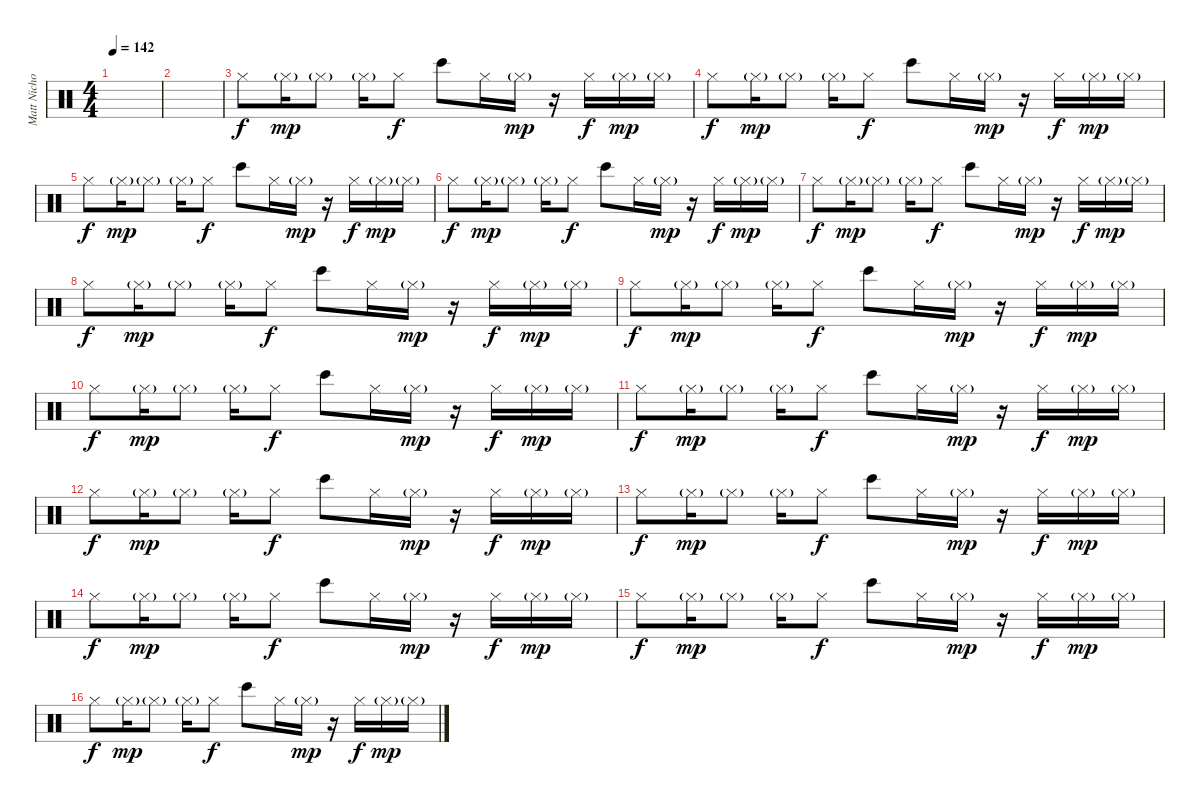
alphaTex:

\track ("Matt Nicholls" "Matt Nicho") {instrument percussion}
\staff {score}
\articulation defaults
\ts (4 4)
\tempo 142
\clef neutral
\ks c
|
|
"Hi-Hat (closed)".8 "Hi-Hat (closed)"{g}.16{dy mp} "Hi-Hat (closed)"{g}.8 "Hi-Hat (closed)"{g}.16 "Hi-Hat (closed)".8{dy f} "Bongo High (hit)".8 "Hi-Hat (closed)".16 "Hi-Hat (closed)"{g}.16{dy mp} r.16 "Hi-Hat (closed)".16{dy f} "Hi-Hat (closed)"{g}.16{dy mp} "Hi-Hat (closed)"{g}.16 |
"Hi-Hat (closed)".8{dy f} "Hi-Hat (closed)"{g}.16{dy mp} "Hi-Hat (closed)"{g}.8 "Hi-Hat (closed)"{g}.16 "Hi-Hat (closed)".8{dy f} "Bongo High (hit)".8 "Hi-Hat (closed)".16 "Hi-Hat (closed)"{g}.16{dy mp} r.16 "Hi-Hat (closed)".16{dy f} "Hi-Hat (closed)"{g}.16{dy mp} "Hi-Hat (closed)"{g}.16 |
"Hi-Hat (closed)".8{dy f} "Hi-Hat (closed)"{g}.16{dy mp} "Hi-Hat (closed)"{g}.8 "Hi-Hat (closed)"{g}.16 "Hi-Hat (closed)".8{dy f} "Bongo High (hit)".8 "Hi-Hat (closed)".16 "Hi-Hat (closed)"{g}.16{dy mp} r.16 "Hi-Hat (closed)".16{dy f} "Hi-Hat (closed)"{g}.16{dy mp} "Hi-Hat (closed)"{g}.16 |
"Hi-Hat (closed)".8{dy f} "Hi-Hat (closed)"{g}.16{dy mp} "Hi-Hat (closed)"{g}.8 "Hi-Hat (closed)"{g}.16 "Hi-Hat (closed)".8{dy f} "Bongo High (hit)".8 "Hi-Hat (closed)".16 "Hi-Hat (closed)"{g}.16{dy mp} r.16 "Hi-Hat (closed)".16{dy f} "Hi-Hat (closed)"{g}.16{dy mp} "Hi-Hat (closed)"{g}.16 |
"Hi-Hat (closed)".8{dy f} "Hi-Hat (closed)"{g}.16{dy mp} "Hi-Hat (closed)"{g}.8 "Hi-Hat (closed)"{g}.16 "Hi-Hat (closed)".8{dy f} "Bongo High (hit)".8 "Hi-Hat (closed)".16 "Hi-Hat (closed)"{g}.16{dy mp} r.16 "Hi-Hat (closed)".16{dy f} "Hi-Hat (closed)"{g}.16{dy mp} "Hi-Hat (closed)"{g}.16 |
"Hi-Hat (closed)".8{dy f} "Hi-Hat (closed)"{g}.16{dy mp} "Hi-Hat (closed)"{g}.8 "Hi-Hat (closed)"{g}.16 "Hi-Hat (closed)".8{dy f} "Bongo High (hit)".8 "Hi-Hat (closed)".16 "Hi-Hat (closed)"{g}.16{dy mp} r.16 "Hi-Hat (closed)".16{dy f} "Hi-Hat (closed)"{g}.16{dy mp} "Hi-Hat (closed)"{g}.16 |
"Hi-Hat (closed)".8{dy f} "Hi-Hat (closed)"{g}.16{dy mp} "Hi-Hat (closed)"{g}.8 "Hi-Hat (closed)"{g}.16 "Hi-Hat (closed)".8{dy f} "Bongo High (hit)".8 "Hi-Hat (closed)".16 "Hi-Hat (closed)"{g}.16{dy mp} r.16 "Hi-Hat (closed)".16{dy f} "Hi-Hat (closed)"{g}.16{dy mp} "Hi-Hat (closed)"{g}.16 |
"Hi-Hat (closed)".8{dy f} "Hi-Hat (closed)"{g}.16{dy mp} "Hi-Hat (closed)"{g}.8 "Hi-Hat (closed)"{g}.16 "Hi-Hat (closed)".8{dy f} "Bongo High (hit)".8 "Hi-Hat (closed)".16 "Hi-Hat (closed)"{g}.16{dy mp} r.16 "Hi-Hat (closed)".16{dy f} "Hi-Hat (closed)"{g}.16{dy mp} "Hi-Hat (closed)"{g}.16 |
"Hi-Hat (closed)".8{dy f} "Hi-Hat (closed)"{g}.16{dy mp} "Hi-Hat (closed)"{g}.8 "Hi-Hat (closed)"{g}.16 "Hi-Hat (closed)".8{dy f} "Bongo High (hit)".8 "Hi-Hat (closed)".16 "Hi-Hat (closed)"{g}.16{dy mp} r.16 "Hi-Hat (closed)".16{dy f} "Hi-Hat (closed)"{g}.16{dy mp} "Hi-Hat (closed)"{g}.16 |
"Hi-Hat (closed)".8{dy f} "Hi-Hat (closed)"{g}.16{dy mp} "Hi-Hat (closed)"{g}.8 "Hi-Hat (closed)"{g}.16 "Hi-Hat (closed)".8{dy f} "Bongo High (hit)".8 "Hi-Hat (closed)".16 "Hi-Hat (closed)"{g}.16{dy mp} r.16 "Hi-Hat (closed)".16{dy f} "Hi-Hat (closed)"{g}.16{dy mp} "Hi-Hat (closed)"{g}.16 |
"Hi-Hat (closed)".8{dy f} "Hi-Hat (closed)"{g}.16{dy mp} "Hi-Hat (closed)"{g}.8 "Hi-Hat (closed)"{g}.16 "Hi-Hat (closed)".8{dy f} "Bongo High (hit)".8 "Hi-Hat (closed)".16 "Hi-Hat (closed)"{g}.16{dy mp} r.16 "Hi-Hat (closed)".16{dy f} "Hi-Hat (closed)"{g}.16{dy mp} "Hi-Hat (closed)"{g}.16 |
"Hi-Hat (closed)".8{dy f} "Hi-Hat (closed)"{g}.16{dy mp} "Hi-Hat (closed)"{g}.8 "Hi-Hat (closed)"{g}.16 "Hi-Hat (closed)".8{dy f} "Bongo High (hit)".8 "Hi-Hat (closed)".16 "Hi-Hat (closed)"{g}.16{dy mp} r.16 "Hi-Hat (closed)".16{dy f} "Hi-Hat (closed)"{g}.16{dy mp} "Hi-Hat (closed)"{g}.16 |
"Hi-Hat (closed)".8{dy f} "Hi-Hat (closed)"{g}.16{dy mp} "Hi-Hat (closed)"{g}.8 "Hi-Hat (closed)"{g}.16 "Hi-Hat (closed)".8{dy f} "Bongo High (hit)".8 "Hi-Hat (closed)".16 "Hi-Hat (closed)"{g}.16{dy mp} r.16 "Hi-Hat (closed)".16{dy f} "Hi-Hat (closed)"{g}.16{dy mp} "Hi-Hat (closed)"{g}.16 |
"Hi-Hat (closed)".8{dy f} "Hi-Hat (closed)"{g}.16{dy mp} "Hi-Hat (closed)"{g}.8 "Hi-Hat (closed)"{g}.16 "Hi-Hat (closed)".8{dy f} "Bongo High (hit)".8 "Hi-Hat (closed)".16 "Hi-Hat (closed)"{g}.16{dy mp} r.16 "Hi-Hat (closed)".16{dy f} "Hi-Hat (closed)"{g}.16{dy mp} "Hi-Hat (closed)"{g}.16
